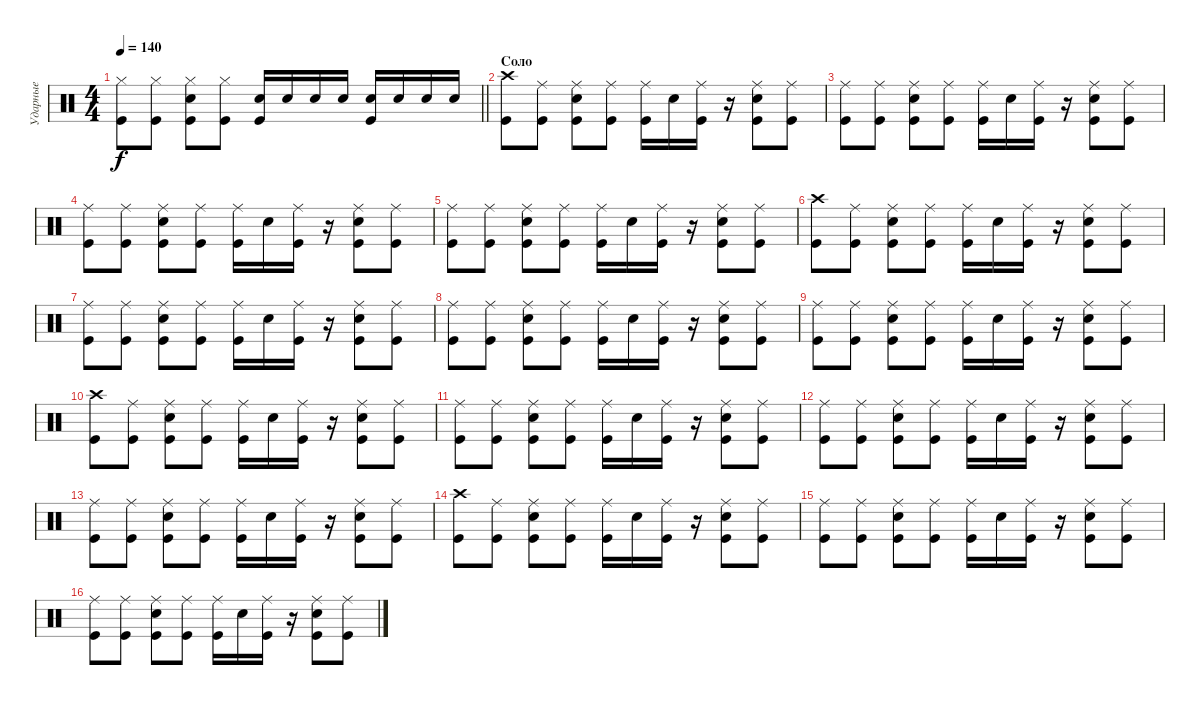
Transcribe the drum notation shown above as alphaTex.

\track ("Ударные" "Ударные") {instrument percussion}
\staff {score}
\articulation defaults
\ts (4 4)
\tempo 140
\clef neutral
\barLineRight lightlight
\ks c
("Hi-Hat (closed)" "Kick (hit)").8{dy f} ("Hi-Hat (closed)" "Kick (hit)").8 ("Hi-Hat (closed)" "Kick (hit)" "Snare (hit) 2").8 ("Hi-Hat (closed)" "Kick (hit)").8 ("Snare (hit) 2" "Kick (hit)").16 "Snare (hit) 2".16 "Snare (hit) 2".16 "Snare (hit) 2".16 ("Snare (hit) 2" "Kick (hit)").16 "Snare (hit) 2".16 "Snare (hit) 2".16 "Snare (hit) 2".16 |
\section ("" "Соло")
("Crash high (hit)" "Kick (hit)").8 ("Ride (middle)" "Kick (hit)").8 ("Ride (middle)" "Kick (hit)" "Snare (hit) 2").8 ("Ride (middle)" "Kick (hit)").8 ("Ride (middle)" "Kick (hit)").16 "Snare (hit) 2".16 ("Ride (middle)" "Kick (hit)").16 r.16 ("Ride (middle)" "Kick (hit)" "Snare (hit) 2").8 ("Ride (middle)" "Kick (hit)").8 |
("Ride (middle)" "Kick (hit)").8 ("Ride (middle)" "Kick (hit)").8 ("Ride (middle)" "Kick (hit)" "Snare (hit) 2").8 ("Ride (middle)" "Kick (hit)").8 ("Ride (middle)" "Kick (hit)").16 "Snare (hit) 2".16 ("Ride (middle)" "Kick (hit)").16 r.16 ("Ride (middle)" "Kick (hit)" "Snare (hit) 2").8 ("Ride (middle)" "Kick (hit)").8 |
("Ride (middle)" "Kick (hit)").8 ("Ride (middle)" "Kick (hit)").8 ("Ride (middle)" "Kick (hit)" "Snare (hit) 2").8 ("Ride (middle)" "Kick (hit)").8 ("Ride (middle)" "Kick (hit)").16 "Snare (hit) 2".16 ("Ride (middle)" "Kick (hit)").16 r.16 ("Ride (middle)" "Kick (hit)" "Snare (hit) 2").8 ("Ride (middle)" "Kick (hit)").8 |
("Ride (middle)" "Kick (hit)").8 ("Ride (middle)" "Kick (hit)").8 ("Ride (middle)" "Kick (hit)" "Snare (hit) 2").8 ("Ride (middle)" "Kick (hit)").8 ("Ride (middle)" "Kick (hit)").16 "Snare (hit) 2".16 ("Ride (middle)" "Kick (hit)").16 r.16 ("Ride (middle)" "Kick (hit)" "Snare (hit) 2").8 ("Ride (middle)" "Kick (hit)").8 |
("Crash high (hit)" "Kick (hit)").8 ("Ride (middle)" "Kick (hit)").8 ("Ride (middle)" "Kick (hit)" "Snare (hit) 2").8 ("Ride (middle)" "Kick (hit)").8 ("Ride (middle)" "Kick (hit)").16 "Snare (hit) 2".16 ("Ride (middle)" "Kick (hit)").16 r.16 ("Ride (middle)" "Kick (hit)" "Snare (hit) 2").8 ("Ride (middle)" "Kick (hit)").8 |
("Ride (middle)" "Kick (hit)").8 ("Ride (middle)" "Kick (hit)").8 ("Ride (middle)" "Kick (hit)" "Snare (hit) 2").8 ("Ride (middle)" "Kick (hit)").8 ("Ride (middle)" "Kick (hit)").16 "Snare (hit) 2".16 ("Ride (middle)" "Kick (hit)").16 r.16 ("Ride (middle)" "Kick (hit)" "Snare (hit) 2").8 ("Ride (middle)" "Kick (hit)").8 |
("Ride (middle)" "Kick (hit)").8 ("Ride (middle)" "Kick (hit)").8 ("Ride (middle)" "Kick (hit)" "Snare (hit) 2").8 ("Ride (middle)" "Kick (hit)").8 ("Ride (middle)" "Kick (hit)").16 "Snare (hit) 2".16 ("Ride (middle)" "Kick (hit)").16 r.16 ("Ride (middle)" "Kick (hit)" "Snare (hit) 2").8 ("Ride (middle)" "Kick (hit)").8 |
("Ride (middle)" "Kick (hit)").8 ("Ride (middle)" "Kick (hit)").8 ("Ride (middle)" "Kick (hit)" "Snare (hit) 2").8 ("Ride (middle)" "Kick (hit)").8 ("Ride (middle)" "Kick (hit)").16 "Snare (hit) 2".16 ("Ride (middle)" "Kick (hit)").16 r.16 ("Ride (middle)" "Kick (hit)" "Snare (hit) 2").8 ("Ride (middle)" "Kick (hit)").8 |
("Crash high (hit)" "Kick (hit)").8 ("Ride (middle)" "Kick (hit)").8 ("Ride (middle)" "Kick (hit)" "Snare (hit) 2").8 ("Ride (middle)" "Kick (hit)").8 ("Ride (middle)" "Kick (hit)").16 "Snare (hit) 2".16 ("Ride (middle)" "Kick (hit)").16 r.16 ("Ride (middle)" "Kick (hit)" "Snare (hit) 2").8 ("Ride (middle)" "Kick (hit)").8 |
("Ride (middle)" "Kick (hit)").8 ("Ride (middle)" "Kick (hit)").8 ("Ride (middle)" "Kick (hit)" "Snare (hit) 2").8 ("Ride (middle)" "Kick (hit)").8 ("Ride (middle)" "Kick (hit)").16 "Snare (hit) 2".16 ("Ride (middle)" "Kick (hit)").16 r.16 ("Ride (middle)" "Kick (hit)" "Snare (hit) 2").8 ("Ride (middle)" "Kick (hit)").8 |
("Ride (middle)" "Kick (hit)").8 ("Ride (middle)" "Kick (hit)").8 ("Ride (middle)" "Kick (hit)" "Snare (hit) 2").8 ("Ride (middle)" "Kick (hit)").8 ("Ride (middle)" "Kick (hit)").16 "Snare (hit) 2".16 ("Ride (middle)" "Kick (hit)").16 r.16 ("Ride (middle)" "Kick (hit)" "Snare (hit) 2").8 ("Ride (middle)" "Kick (hit)").8 |
("Ride (middle)" "Kick (hit)").8 ("Ride (middle)" "Kick (hit)").8 ("Ride (middle)" "Kick (hit)" "Snare (hit) 2").8 ("Ride (middle)" "Kick (hit)").8 ("Ride (middle)" "Kick (hit)").16 "Snare (hit) 2".16 ("Ride (middle)" "Kick (hit)").16 r.16 ("Ride (middle)" "Kick (hit)" "Snare (hit) 2").8 ("Ride (middle)" "Kick (hit)").8 |
("Crash high (hit)" "Kick (hit)").8 ("Ride (middle)" "Kick (hit)").8 ("Ride (middle)" "Kick (hit)" "Snare (hit) 2").8 ("Ride (middle)" "Kick (hit)").8 ("Ride (middle)" "Kick (hit)").16 "Snare (hit) 2".16 ("Ride (middle)" "Kick (hit)").16 r.16 ("Ride (middle)" "Kick (hit)" "Snare (hit) 2").8 ("Ride (middle)" "Kick (hit)").8 |
("Ride (middle)" "Kick (hit)").8 ("Ride (middle)" "Kick (hit)").8 ("Ride (middle)" "Kick (hit)" "Snare (hit) 2").8 ("Ride (middle)" "Kick (hit)").8 ("Ride (middle)" "Kick (hit)").16 "Snare (hit) 2".16 ("Ride (middle)" "Kick (hit)").16 r.16 ("Ride (middle)" "Kick (hit)" "Snare (hit) 2").8 ("Ride (middle)" "Kick (hit)").8 |
("Ride (middle)" "Kick (hit)").8 ("Ride (middle)" "Kick (hit)").8 ("Ride (middle)" "Kick (hit)" "Snare (hit) 2").8 ("Ride (middle)" "Kick (hit)").8 ("Ride (middle)" "Kick (hit)").16 "Snare (hit) 2".16 ("Ride (middle)" "Kick (hit)").16 r.16 ("Ride (middle)" "Kick (hit)" "Snare (hit) 2").8 ("Ride (middle)" "Kick (hit)").8
